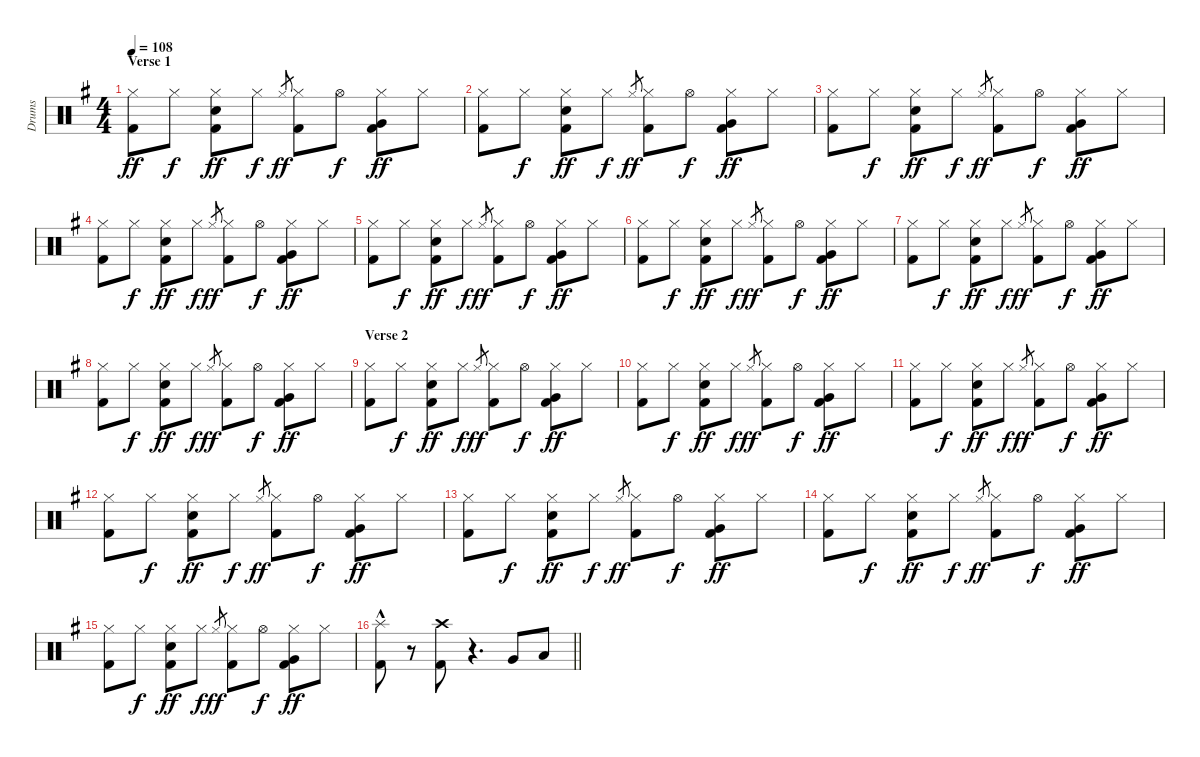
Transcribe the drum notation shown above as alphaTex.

\track ("Drums" "Drums") {instrument percussion}
\staff {score}
\articulation defaults
\ts (4 4)
\section ("" "Verse 1")
\tempo 108
\clef neutral
\ks g
("Hi-Hat (closed)" "Kick (hit) 2").8{dy ff} "Hi-Hat (closed)".8{dy f} ("Hi-Hat (closed)" "Snare (hit) 2" "Kick (hit) 2").8{dy ff} "Hi-Hat (closed)".8{dy f} "Hi-Hat (closed)".8{gr dy ff} ("Hi-Hat (closed)" "Kick (hit) 2").8 "Hi-Hat (open)".8{dy f} ("Hi-Hat (closed)" "Very Low Tom (hit)" "Kick (hit) 2").8{dy ff} "Hi-Hat (closed)".8 |
("Hi-Hat (closed)" "Kick (hit) 2").8 "Hi-Hat (closed)".8{dy f} ("Hi-Hat (closed)" "Snare (hit) 2" "Kick (hit) 2").8{dy ff} "Hi-Hat (closed)".8{dy f} "Hi-Hat (closed)".8{gr dy ff} ("Hi-Hat (closed)" "Kick (hit) 2").8 "Hi-Hat (open)".8{dy f} ("Hi-Hat (closed)" "Very Low Tom (hit)" "Kick (hit) 2").8{dy ff} "Hi-Hat (closed)".8 |
("Hi-Hat (closed)" "Kick (hit) 2").8 "Hi-Hat (closed)".8{dy f} ("Hi-Hat (closed)" "Snare (hit) 2" "Kick (hit) 2").8{dy ff} "Hi-Hat (closed)".8{dy f} "Hi-Hat (closed)".8{gr dy ff} ("Hi-Hat (closed)" "Kick (hit) 2").8 "Hi-Hat (open)".8{dy f} ("Hi-Hat (closed)" "Very Low Tom (hit)" "Kick (hit) 2").8{dy ff} "Hi-Hat (closed)".8 |
("Hi-Hat (closed)" "Kick (hit) 2").8 "Hi-Hat (closed)".8{dy f} ("Hi-Hat (closed)" "Snare (hit) 2" "Kick (hit) 2").8{dy ff} "Hi-Hat (closed)".8{dy f} "Hi-Hat (closed)".8{gr dy ff} ("Hi-Hat (closed)" "Kick (hit) 2").8 "Hi-Hat (open)".8{dy f} ("Hi-Hat (closed)" "Very Low Tom (hit)" "Kick (hit) 2").8{dy ff} "Hi-Hat (closed)".8 |
("Hi-Hat (closed)" "Kick (hit) 2").8 "Hi-Hat (closed)".8{dy f} ("Hi-Hat (closed)" "Snare (hit) 2" "Kick (hit) 2").8{dy ff} "Hi-Hat (closed)".8{dy f} "Hi-Hat (closed)".8{gr dy ff} ("Hi-Hat (closed)" "Kick (hit) 2").8 "Hi-Hat (open)".8{dy f} ("Hi-Hat (closed)" "Very Low Tom (hit)" "Kick (hit) 2").8{dy ff} "Hi-Hat (closed)".8 |
("Hi-Hat (closed)" "Kick (hit) 2").8 "Hi-Hat (closed)".8{dy f} ("Hi-Hat (closed)" "Snare (hit) 2" "Kick (hit) 2").8{dy ff} "Hi-Hat (closed)".8{dy f} "Hi-Hat (closed)".8{gr dy ff} ("Hi-Hat (closed)" "Kick (hit) 2").8 "Hi-Hat (open)".8{dy f} ("Hi-Hat (closed)" "Very Low Tom (hit)" "Kick (hit) 2").8{dy ff} "Hi-Hat (closed)".8 |
("Hi-Hat (closed)" "Kick (hit) 2").8 "Hi-Hat (closed)".8{dy f} ("Hi-Hat (closed)" "Snare (hit) 2" "Kick (hit) 2").8{dy ff} "Hi-Hat (closed)".8{dy f} "Hi-Hat (closed)".8{gr dy ff} ("Hi-Hat (closed)" "Kick (hit) 2").8 "Hi-Hat (open)".8{dy f} ("Hi-Hat (closed)" "Very Low Tom (hit)" "Kick (hit) 2").8{dy ff} "Hi-Hat (closed)".8 |
("Hi-Hat (closed)" "Kick (hit) 2").8 "Hi-Hat (closed)".8{dy f} ("Hi-Hat (closed)" "Snare (hit) 2" "Kick (hit) 2").8{dy ff} "Hi-Hat (closed)".8{dy f} "Hi-Hat (closed)".8{gr dy ff} ("Hi-Hat (closed)" "Kick (hit) 2").8 "Hi-Hat (open)".8{dy f} ("Hi-Hat (closed)" "Very Low Tom (hit)" "Kick (hit) 2").8{dy ff} "Hi-Hat (closed)".8 |
\section ("" "Verse 2")
("Hi-Hat (closed)" "Kick (hit) 2").8 "Hi-Hat (closed)".8{dy f} ("Hi-Hat (closed)" "Snare (hit) 2" "Kick (hit) 2").8{dy ff} "Hi-Hat (closed)".8{dy f} "Hi-Hat (closed)".8{gr dy ff} ("Hi-Hat (closed)" "Kick (hit) 2").8 "Hi-Hat (open)".8{dy f} ("Hi-Hat (closed)" "Very Low Tom (hit)" "Kick (hit) 2").8{dy ff} "Hi-Hat (closed)".8 |
("Hi-Hat (closed)" "Kick (hit) 2").8 "Hi-Hat (closed)".8{dy f} ("Hi-Hat (closed)" "Snare (hit) 2" "Kick (hit) 2").8{dy ff} "Hi-Hat (closed)".8{dy f} "Hi-Hat (closed)".8{gr dy ff} ("Hi-Hat (closed)" "Kick (hit) 2").8 "Hi-Hat (open)".8{dy f} ("Hi-Hat (closed)" "Very Low Tom (hit)" "Kick (hit) 2").8{dy ff} "Hi-Hat (closed)".8 |
("Hi-Hat (closed)" "Kick (hit) 2").8 "Hi-Hat (closed)".8{dy f} ("Hi-Hat (closed)" "Snare (hit) 2" "Kick (hit) 2").8{dy ff} "Hi-Hat (closed)".8{dy f} "Hi-Hat (closed)".8{gr dy ff} ("Hi-Hat (closed)" "Kick (hit) 2").8 "Hi-Hat (open)".8{dy f} ("Hi-Hat (closed)" "Very Low Tom (hit)" "Kick (hit) 2").8{dy ff} "Hi-Hat (closed)".8 |
("Hi-Hat (closed)" "Kick (hit) 2").8 "Hi-Hat (closed)".8{dy f} ("Hi-Hat (closed)" "Snare (hit) 2" "Kick (hit) 2").8{dy ff} "Hi-Hat (closed)".8{dy f} "Hi-Hat (closed)".8{gr dy ff} ("Hi-Hat (closed)" "Kick (hit) 2").8 "Hi-Hat (open)".8{dy f} ("Hi-Hat (closed)" "Very Low Tom (hit)" "Kick (hit) 2").8{dy ff} "Hi-Hat (closed)".8 |
("Hi-Hat (closed)" "Kick (hit) 2").8 "Hi-Hat (closed)".8{dy f} ("Hi-Hat (closed)" "Snare (hit) 2" "Kick (hit) 2").8{dy ff} "Hi-Hat (closed)".8{dy f} "Hi-Hat (closed)".8{gr dy ff} ("Hi-Hat (closed)" "Kick (hit) 2").8 "Hi-Hat (open)".8{dy f} ("Hi-Hat (closed)" "Very Low Tom (hit)" "Kick (hit) 2").8{dy ff} "Hi-Hat (closed)".8 |
("Hi-Hat (closed)" "Kick (hit) 2").8 "Hi-Hat (closed)".8{dy f} ("Hi-Hat (closed)" "Snare (hit) 2" "Kick (hit) 2").8{dy ff} "Hi-Hat (closed)".8{dy f} "Hi-Hat (closed)".8{gr dy ff} ("Hi-Hat (closed)" "Kick (hit) 2").8 "Hi-Hat (open)".8{dy f} ("Hi-Hat (closed)" "Very Low Tom (hit)" "Kick (hit) 2").8{dy ff} "Hi-Hat (closed)".8 |
("Hi-Hat (closed)" "Kick (hit) 2").8 "Hi-Hat (closed)".8{dy f} ("Hi-Hat (closed)" "Snare (hit) 2" "Kick (hit) 2").8{dy ff} "Hi-Hat (closed)".8{dy f} "Hi-Hat (closed)".8{gr dy ff} ("Hi-Hat (closed)" "Kick (hit) 2").8 "Hi-Hat (open)".8{dy f} ("Hi-Hat (closed)" "Very Low Tom (hit)" "Kick (hit) 2").8{dy ff} "Hi-Hat (closed)".8 |
\barLineRight lightlight
("Splash (hit)"{hac} "Kick (hit) 2").8 r.8 ("Crash high (hit)" "Kick (hit) 2").8 r.4{d} "Very Low Tom (hit)".8 "Low Floor Tom (hit)".8
